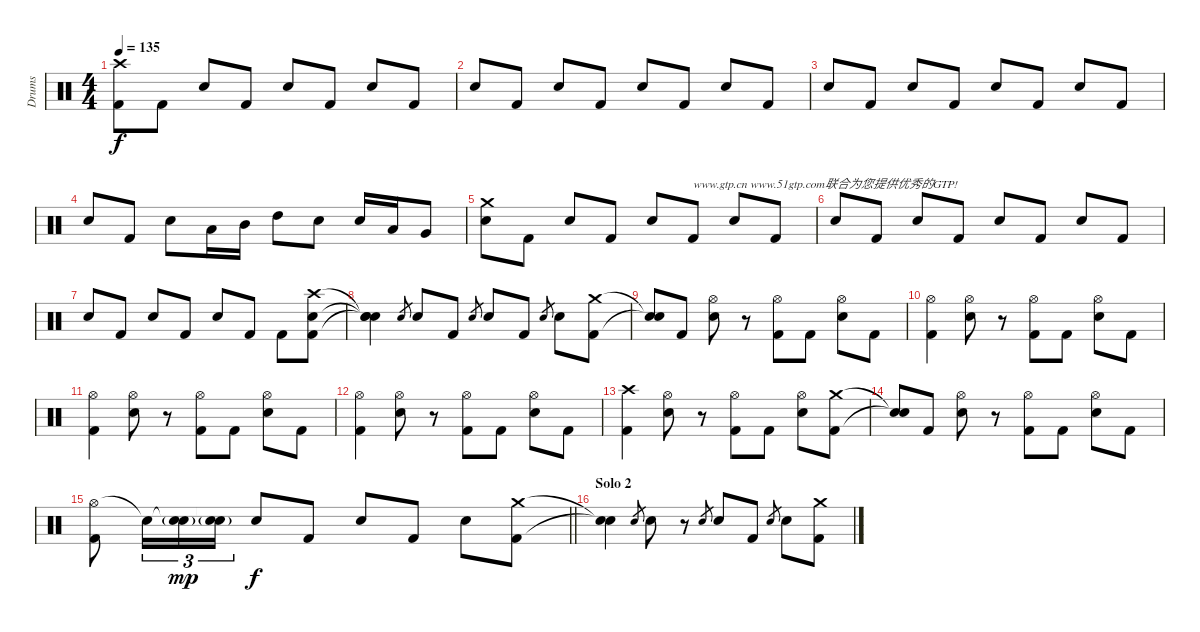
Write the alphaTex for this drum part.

\track ("Drums" "Drums") {instrument percussion}
\staff {score}
\articulation defaults
\ts (4 4)
\tempo 135
\clef neutral
\ks c
("Crash high (hit)" "Kick (hit) 2").8{dy f} "Kick (hit) 2".8 "Electric Snare (hit)".8 "Kick (hit) 2".8 "Electric Snare (hit)".8 "Kick (hit) 2".8 "Electric Snare (hit)".8 "Kick (hit) 2".8 |
"Electric Snare (hit)".8 "Kick (hit) 2".8 "Electric Snare (hit)".8 "Kick (hit) 2".8 "Electric Snare (hit)".8 "Kick (hit) 2".8 "Electric Snare (hit)".8 "Kick (hit) 2".8 |
"Electric Snare (hit)".8 "Kick (hit) 2".8 "Electric Snare (hit)".8 "Kick (hit) 2".8 "Electric Snare (hit)".8 "Kick (hit) 2".8 "Electric Snare (hit)".8 "Kick (hit) 2".8 |
"Electric Snare (hit)".8 "Kick (hit) 2".8 "Electric Snare (hit)".8 "Low Tom (hit)".16 "Mid Tom (hit)".16 "High Tom (hit)".8 "Electric Snare (hit)".8 "Electric Snare (hit)".16 "Low Tom (hit)".16 "Very Low Tom (hit)".8 |
("Crash medium (hit)" "Electric Snare (hit)").8 "Kick (hit) 2".8 "Electric Snare (hit)".8 "Kick (hit) 2".8 "Electric Snare (hit)".8 "Kick (hit) 2".8{txt "www.gtp.cn www.51gtp.com联合为您提供优秀的GTP!"} "Electric Snare (hit)".8 "Kick (hit) 2".8 |
"Electric Snare (hit)".8 "Kick (hit) 2".8 "Electric Snare (hit)".8 "Kick (hit) 2".8 "Electric Snare (hit)".8 "Kick (hit) 2".8 "Electric Snare (hit)".8 "Kick (hit) 2".8 |
"Electric Snare (hit)".8 "Kick (hit) 2".8 "Electric Snare (hit)".8 "Kick (hit) 2".8 "Electric Snare (hit)".8 "Kick (hit) 2".8 "Kick (hit) 2".8 ("Crash high (hit)" "Electric Snare (hit)" "Kick (hit) 2").8 |
("Snare (hit)"{t} "Snare (hit)"{t} "Snare (hit)"{t}).4 "Electric Snare (hit)".8{gr} "Electric Snare (hit)".8 "Kick (hit) 2".8 "Electric Snare (hit)".8{gr} "Electric Snare (hit)".8 "Kick (hit) 2".8 "Electric Snare (hit)".8{gr} "Electric Snare (hit)".8 ("Crash medium (hit)" "Kick (hit) 2").8 |
("Snare (hit)"{t} "Snare (hit)"{t}).8 "Kick (hit) 2".8 ("Hi-Hat (open)" "Electric Snare (hit)").8 r.8 ("Hi-Hat (open)" "Kick (hit) 2").8 "Kick (hit) 2".8 ("Hi-Hat (open)" "Electric Snare (hit)").8 "Kick (hit) 2".8 |
("Hi-Hat (open)" "Kick (hit) 2").4 ("Hi-Hat (open)" "Electric Snare (hit)").8 r.8 ("Hi-Hat (open)" "Kick (hit) 2").8 "Kick (hit) 2".8 ("Hi-Hat (open)" "Electric Snare (hit)").8 "Kick (hit) 2".8 |
("Hi-Hat (open)" "Kick (hit) 2").4 ("Hi-Hat (open)" "Electric Snare (hit)").8 r.8 ("Hi-Hat (open)" "Kick (hit) 2").8 "Kick (hit) 2".8 ("Hi-Hat (open)" "Electric Snare (hit)").8 "Kick (hit) 2".8 |
("Hi-Hat (open)" "Kick (hit) 2").4 ("Hi-Hat (open)" "Electric Snare (hit)").8 r.8 ("Hi-Hat (open)" "Kick (hit) 2").8 "Kick (hit) 2".8 ("Hi-Hat (open)" "Electric Snare (hit)").8 "Kick (hit) 2".8 |
("Crash high (hit)" "Kick (hit) 2").4 ("Hi-Hat (open)" "Electric Snare (hit)").8 r.8 ("Hi-Hat (open)" "Kick (hit) 2").8 "Kick (hit) 2".8 ("Hi-Hat (open)" "Electric Snare (hit)").8 ("Crash medium (hit)" "Kick (hit) 2").8 |
("Snare (hit)"{t} "Snare (hit)"{t}).8 "Kick (hit) 2".8 ("Hi-Hat (open)" "Electric Snare (hit)").8 r.8 ("Hi-Hat (open)" "Kick (hit) 2").8 "Kick (hit) 2".8 ("Hi-Hat (open)" "Electric Snare (hit)").8 "Kick (hit) 2".8 |
\barLineRight lightlight
("Hi-Hat (open)" "Kick (hit) 2").8 "Snare (hit)"{t}.16{tu (3 2)} ("Snare (hit)"{t} "Electric Snare (hit)"{g}).16{tu (3 2) dy mp} ("Snare (hit)"{t} "Electric Snare (hit)"{g}).16{tu (3 2)} "Electric Snare (hit)".8{dy f} "Kick (hit) 2".8 "Electric Snare (hit)".8 "Kick (hit) 2".8 "Electric Snare (hit)".8 ("Crash medium (hit)" "Kick (hit) 2").8 |
\section ("" "Solo 2")
("Snare (hit)"{t} "Snare (hit)"{t}).4 "Electric Snare (hit)".8{gr} "Electric Snare (hit)".8 r.8 "Electric Snare (hit)".8{gr} "Electric Snare (hit)".8 "Kick (hit) 2".8 "Electric Snare (hit)".8{gr} "Electric Snare (hit)".8 ("Crash medium (hit)" "Kick (hit) 2").8
